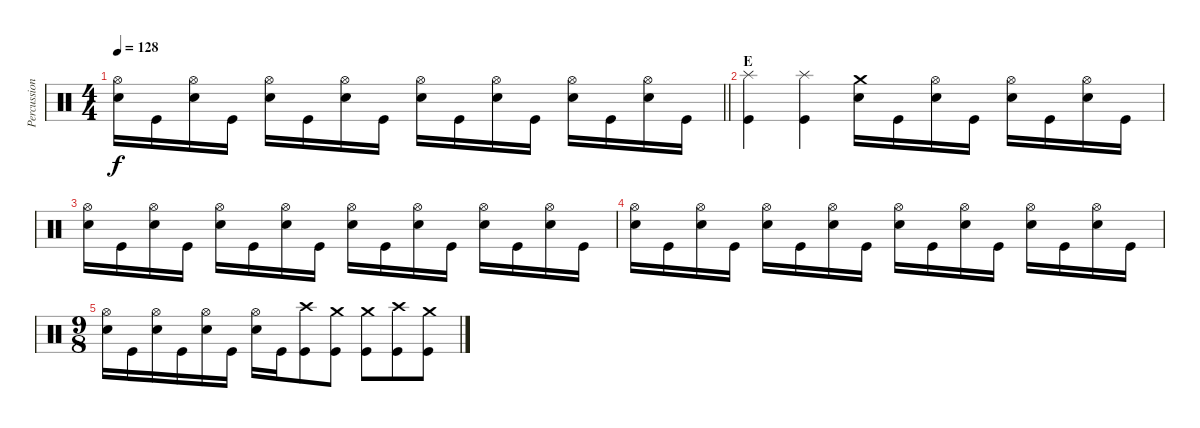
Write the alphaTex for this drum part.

\track ("Percussion" "Percussion") {instrument percussion}
\staff {score}
\articulation defaults
\ts (4 4)
\tempo 128
\clef neutral
\barLineRight lightlight
\ks c
("Snare (hit) 2" "Hi-Hat (open)").16{dy f} "Kick (hit)".16 ("Snare (hit) 2" "Hi-Hat (open)").16 "Kick (hit)".16 ("Snare (hit) 2" "Hi-Hat (open)").16 "Kick (hit)".16 ("Snare (hit) 2" "Hi-Hat (open)").16 "Kick (hit)".16 ("Snare (hit) 2" "Hi-Hat (open)").16 "Kick (hit)".16 ("Snare (hit) 2" "Hi-Hat (open)").16 "Kick (hit)".16 ("Snare (hit) 2" "Hi-Hat (open)").16 "Kick (hit)".16 ("Snare (hit) 2" "Hi-Hat (open)").16 "Kick (hit)".16 |
\section ("" "E")
("Kick (hit)" "Splash (hit)").4 ("Kick (hit)" "Splash (hit)").4 ("Snare (hit) 2" "Crash medium (hit)").16 "Kick (hit)".16 ("Snare (hit) 2" "Hi-Hat (open)").16 "Kick (hit)".16 ("Snare (hit) 2" "Hi-Hat (open)").16 "Kick (hit)".16 ("Snare (hit) 2" "Hi-Hat (open)").16 "Kick (hit)".16 |
("Snare (hit) 2" "Hi-Hat (open)").16 "Kick (hit)".16 ("Snare (hit) 2" "Hi-Hat (open)").16 "Kick (hit)".16 ("Snare (hit) 2" "Hi-Hat (open)").16 "Kick (hit)".16 ("Snare (hit) 2" "Hi-Hat (open)").16 "Kick (hit)".16 ("Snare (hit) 2" "Hi-Hat (open)").16 "Kick (hit)".16 ("Snare (hit) 2" "Hi-Hat (open)").16 "Kick (hit)".16 ("Snare (hit) 2" "Hi-Hat (open)").16 "Kick (hit)".16 ("Snare (hit) 2" "Hi-Hat (open)").16 "Kick (hit)".16 |
("Snare (hit) 2" "Hi-Hat (open)").16 "Kick (hit)".16 ("Snare (hit) 2" "Hi-Hat (open)").16 "Kick (hit)".16 ("Snare (hit) 2" "Hi-Hat (open)").16 "Kick (hit)".16 ("Snare (hit) 2" "Hi-Hat (open)").16 "Kick (hit)".16 ("Snare (hit) 2" "Hi-Hat (open)").16 "Kick (hit)".16 ("Snare (hit) 2" "Hi-Hat (open)").16 "Kick (hit)".16 ("Snare (hit) 2" "Hi-Hat (open)").16 "Kick (hit)".16 ("Snare (hit) 2" "Hi-Hat (open)").16 "Kick (hit)".16 |
\ts (9 8)
("Snare (hit) 2" "Hi-Hat (open)").16 "Kick (hit)".16 ("Snare (hit) 2" "Hi-Hat (open)").16 "Kick (hit)".16 ("Snare (hit) 2" "Hi-Hat (open)").16 "Kick (hit)".16 ("Snare (hit) 2" "Hi-Hat (open)").16 "Kick (hit)".16 ("Kick (hit)" "Crash high (hit)").8 ("Kick (hit)" "Crash medium (hit)").8 ("Kick (hit)" "Crash medium (hit)").8 ("Kick (hit)" "Crash high (hit)").8 ("Kick (hit)" "Crash medium (hit)").8
